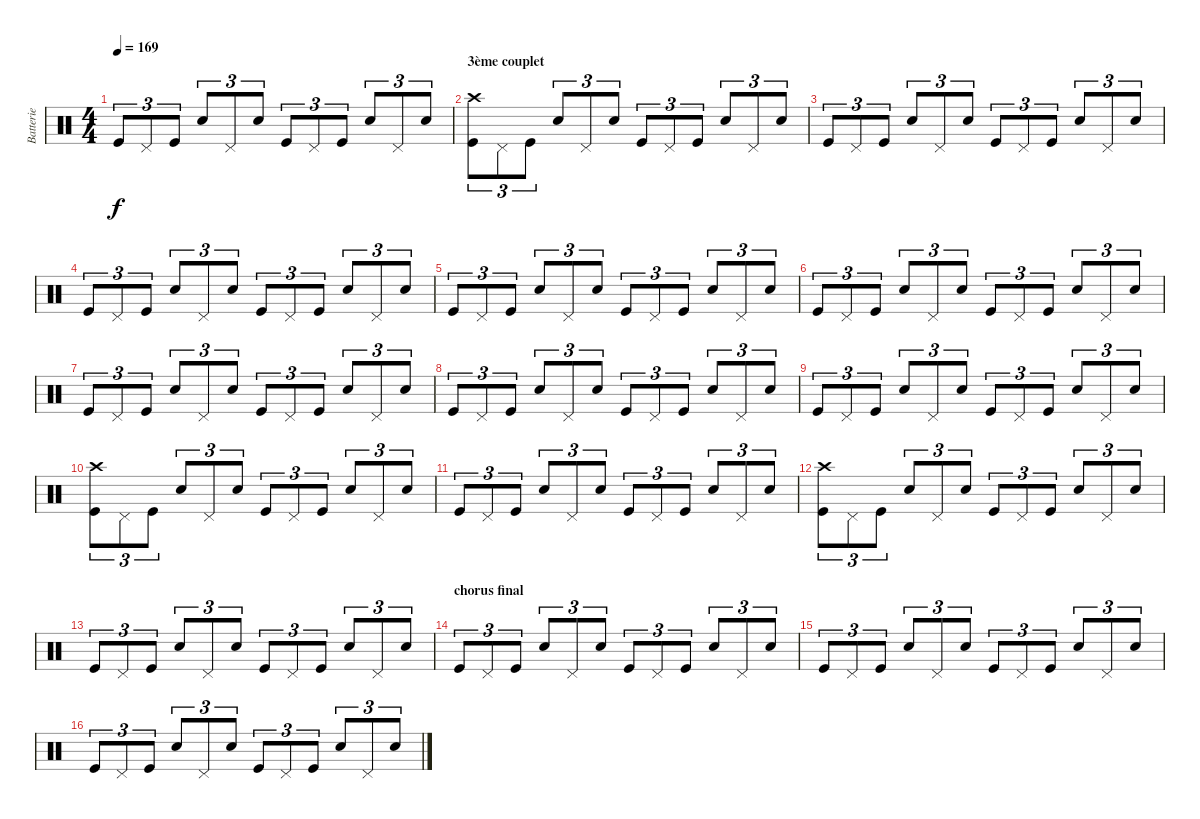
\track ("Batterie" "Batterie") {instrument percussion}
\staff {score}
\articulation defaults
\ts (4 4)
\tempo 169
\clef neutral
\ks c "Kick (hit)".8{tu (3 2) dy f} "Pedal Hi-Hat (hit)".8{tu (3 2)} "Kick (hit)".8{tu (3 2)} "Snare (hit) 2".8{tu (3 2)} "Pedal Hi-Hat (hit)".8{tu (3 2)} "Snare (hit) 2".8{tu (3 2)} "Kick (hit)".8{tu (3 2)} "Pedal Hi-Hat (hit)".8{tu (3 2)} "Kick (hit)".8{tu (3 2)} "Snare (hit) 2".8{tu (3 2)} "Pedal Hi-Hat (hit)".8{tu (3 2)} "Snare (hit) 2".8{tu (3 2)}
|
\section ("" "3ème couplet")
("Crash high (hit)" "Kick (hit)").8{tu (3 2)} "Pedal Hi-Hat (hit)".8{tu (3 2)} "Kick (hit)".8{tu (3 2)} "Snare (hit) 2".8{tu (3 2)} "Pedal Hi-Hat (hit)".8{tu (3 2)} "Snare (hit) 2".8{tu (3 2)} "Kick (hit)".8{tu (3 2)} "Pedal Hi-Hat (hit)".8{tu (3 2)} "Kick (hit)".8{tu (3 2)} "Snare (hit) 2".8{tu (3 2)} "Pedal Hi-Hat (hit)".8{tu (3 2)} "Snare (hit) 2".8{tu (3 2)} |
"Kick (hit)".8{tu (3 2)} "Pedal Hi-Hat (hit)".8{tu (3 2)} "Kick (hit)".8{tu (3 2)} "Snare (hit) 2".8{tu (3 2)} "Pedal Hi-Hat (hit)".8{tu (3 2)} "Snare (hit) 2".8{tu (3 2)} "Kick (hit)".8{tu (3 2)} "Pedal Hi-Hat (hit)".8{tu (3 2)} "Kick (hit)".8{tu (3 2)} "Snare (hit) 2".8{tu (3 2)} "Pedal Hi-Hat (hit)".8{tu (3 2)} "Snare (hit) 2".8{tu (3 2)} |
"Kick (hit)".8{tu (3 2)} "Pedal Hi-Hat (hit)".8{tu (3 2)} "Kick (hit)".8{tu (3 2)} "Snare (hit) 2".8{tu (3 2)} "Pedal Hi-Hat (hit)".8{tu (3 2)} "Snare (hit) 2".8{tu (3 2)} "Kick (hit)".8{tu (3 2)} "Pedal Hi-Hat (hit)".8{tu (3 2)} "Kick (hit)".8{tu (3 2)} "Snare (hit) 2".8{tu (3 2)} "Pedal Hi-Hat (hit)".8{tu (3 2)} "Snare (hit) 2".8{tu (3 2)} |
"Kick (hit)".8{tu (3 2)} "Pedal Hi-Hat (hit)".8{tu (3 2)} "Kick (hit)".8{tu (3 2)} "Snare (hit) 2".8{tu (3 2)} "Pedal Hi-Hat (hit)".8{tu (3 2)} "Snare (hit) 2".8{tu (3 2)} "Kick (hit)".8{tu (3 2)} "Pedal Hi-Hat (hit)".8{tu (3 2)} "Kick (hit)".8{tu (3 2)} "Snare (hit) 2".8{tu (3 2)} "Pedal Hi-Hat (hit)".8{tu (3 2)} "Snare (hit) 2".8{tu (3 2)} |
"Kick (hit)".8{tu (3 2)} "Pedal Hi-Hat (hit)".8{tu (3 2)} "Kick (hit)".8{tu (3 2)} "Snare (hit) 2".8{tu (3 2)} "Pedal Hi-Hat (hit)".8{tu (3 2)} "Snare (hit) 2".8{tu (3 2)} "Kick (hit)".8{tu (3 2)} "Pedal Hi-Hat (hit)".8{tu (3 2)} "Kick (hit)".8{tu (3 2)} "Snare (hit) 2".8{tu (3 2)} "Pedal Hi-Hat (hit)".8{tu (3 2)} "Snare (hit) 2".8{tu (3 2)} |
"Kick (hit)".8{tu (3 2)} "Pedal Hi-Hat (hit)".8{tu (3 2)} "Kick (hit)".8{tu (3 2)} "Snare (hit) 2".8{tu (3 2)} "Pedal Hi-Hat (hit)".8{tu (3 2)} "Snare (hit) 2".8{tu (3 2)} "Kick (hit)".8{tu (3 2)} "Pedal Hi-Hat (hit)".8{tu (3 2)} "Kick (hit)".8{tu (3 2)} "Snare (hit) 2".8{tu (3 2)} "Pedal Hi-Hat (hit)".8{tu (3 2)} "Snare (hit) 2".8{tu (3 2)} |
"Kick (hit)".8{tu (3 2)} "Pedal Hi-Hat (hit)".8{tu (3 2)} "Kick (hit)".8{tu (3 2)} "Snare (hit) 2".8{tu (3 2)} "Pedal Hi-Hat (hit)".8{tu (3 2)} "Snare (hit) 2".8{tu (3 2)} "Kick (hit)".8{tu (3 2)} "Pedal Hi-Hat (hit)".8{tu (3 2)} "Kick (hit)".8{tu (3 2)} "Snare (hit) 2".8{tu (3 2)} "Pedal Hi-Hat (hit)".8{tu (3 2)} "Snare (hit) 2".8{tu (3 2)} |
"Kick (hit)".8{tu (3 2)} "Pedal Hi-Hat (hit)".8{tu (3 2)} "Kick (hit)".8{tu (3 2)} "Snare (hit) 2".8{tu (3 2)} "Pedal Hi-Hat (hit)".8{tu (3 2)} "Snare (hit) 2".8{tu (3 2)} "Kick (hit)".8{tu (3 2)} "Pedal Hi-Hat (hit)".8{tu (3 2)} "Kick (hit)".8{tu (3 2)} "Snare (hit) 2".8{tu (3 2)} "Pedal Hi-Hat (hit)".8{tu (3 2)} "Snare (hit) 2".8{tu (3 2)} |
("Crash high (hit)" "Kick (hit)").8{tu (3 2)} "Pedal Hi-Hat (hit)".8{tu (3 2)} "Kick (hit)".8{tu (3 2)} "Snare (hit) 2".8{tu (3 2)} "Pedal Hi-Hat (hit)".8{tu (3 2)} "Snare (hit) 2".8{tu (3 2)} "Kick (hit)".8{tu (3 2)} "Pedal Hi-Hat (hit)".8{tu (3 2)} "Kick (hit)".8{tu (3 2)} "Snare (hit) 2".8{tu (3 2)} "Pedal Hi-Hat (hit)".8{tu (3 2)} "Snare (hit) 2".8{tu (3 2)} |
"Kick (hit)".8{tu (3 2)} "Pedal Hi-Hat (hit)".8{tu (3 2)} "Kick (hit)".8{tu (3 2)} "Snare (hit) 2".8{tu (3 2)} "Pedal Hi-Hat (hit)".8{tu (3 2)} "Snare (hit) 2".8{tu (3 2)} "Kick (hit)".8{tu (3 2)} "Pedal Hi-Hat (hit)".8{tu (3 2)} "Kick (hit)".8{tu (3 2)} "Snare (hit) 2".8{tu (3 2)} "Pedal Hi-Hat (hit)".8{tu (3 2)} "Snare (hit) 2".8{tu (3 2)} |
("Crash high (hit)" "Kick (hit)").8{tu (3 2)} "Pedal Hi-Hat (hit)".8{tu (3 2)} "Kick (hit)".8{tu (3 2)} "Snare (hit) 2".8{tu (3 2)} "Pedal Hi-Hat (hit)".8{tu (3 2)} "Snare (hit) 2".8{tu (3 2)} "Kick (hit)".8{tu (3 2)} "Pedal Hi-Hat (hit)".8{tu (3 2)} "Kick (hit)".8{tu (3 2)} "Snare (hit) 2".8{tu (3 2)} "Pedal Hi-Hat (hit)".8{tu (3 2)} "Snare (hit) 2".8{tu (3 2)} |
"Kick (hit)".8{tu (3 2)} "Pedal Hi-Hat (hit)".8{tu (3 2)} "Kick (hit)".8{tu (3 2)} "Snare (hit) 2".8{tu (3 2)} "Pedal Hi-Hat (hit)".8{tu (3 2)} "Snare (hit) 2".8{tu (3 2)} "Kick (hit)".8{tu (3 2)} "Pedal Hi-Hat (hit)".8{tu (3 2)} "Kick (hit)".8{tu (3 2)} "Snare (hit) 2".8{tu (3 2)} "Pedal Hi-Hat (hit)".8{tu (3 2)} "Snare (hit) 2".8{tu (3 2)} |
\section ("" "chorus final")
"Kick (hit)".8{tu (3 2)} "Pedal Hi-Hat (hit)".8{tu (3 2)} "Kick (hit)".8{tu (3 2)} "Snare (hit) 2".8{tu (3 2)} "Pedal Hi-Hat (hit)".8{tu (3 2)} "Snare (hit) 2".8{tu (3 2)} "Kick (hit)".8{tu (3 2)} "Pedal Hi-Hat (hit)".8{tu (3 2)} "Kick (hit)".8{tu (3 2)} "Snare (hit) 2".8{tu (3 2)} "Pedal Hi-Hat (hit)".8{tu (3 2)} "Snare (hit) 2".8{tu (3 2)} |
"Kick (hit)".8{tu (3 2)} "Pedal Hi-Hat (hit)".8{tu (3 2)} "Kick (hit)".8{tu (3 2)} "Snare (hit) 2".8{tu (3 2)} "Pedal Hi-Hat (hit)".8{tu (3 2)} "Snare (hit) 2".8{tu (3 2)} "Kick (hit)".8{tu (3 2)} "Pedal Hi-Hat (hit)".8{tu (3 2)} "Kick (hit)".8{tu (3 2)} "Snare (hit) 2".8{tu (3 2)} "Pedal Hi-Hat (hit)".8{tu (3 2)} "Snare (hit) 2".8{tu (3 2)} |
"Kick (hit)".8{tu (3 2)} "Pedal Hi-Hat (hit)".8{tu (3 2)} "Kick (hit)".8{tu (3 2)} "Snare (hit) 2".8{tu (3 2)} "Pedal Hi-Hat (hit)".8{tu (3 2)} "Snare (hit) 2".8{tu (3 2)} "Kick (hit)".8{tu (3 2)} "Pedal Hi-Hat (hit)".8{tu (3 2)} "Kick (hit)".8{tu (3 2)} "Snare (hit) 2".8{tu (3 2)} "Pedal Hi-Hat (hit)".8{tu (3 2)} "Snare (hit) 2".8{tu (3 2)}
